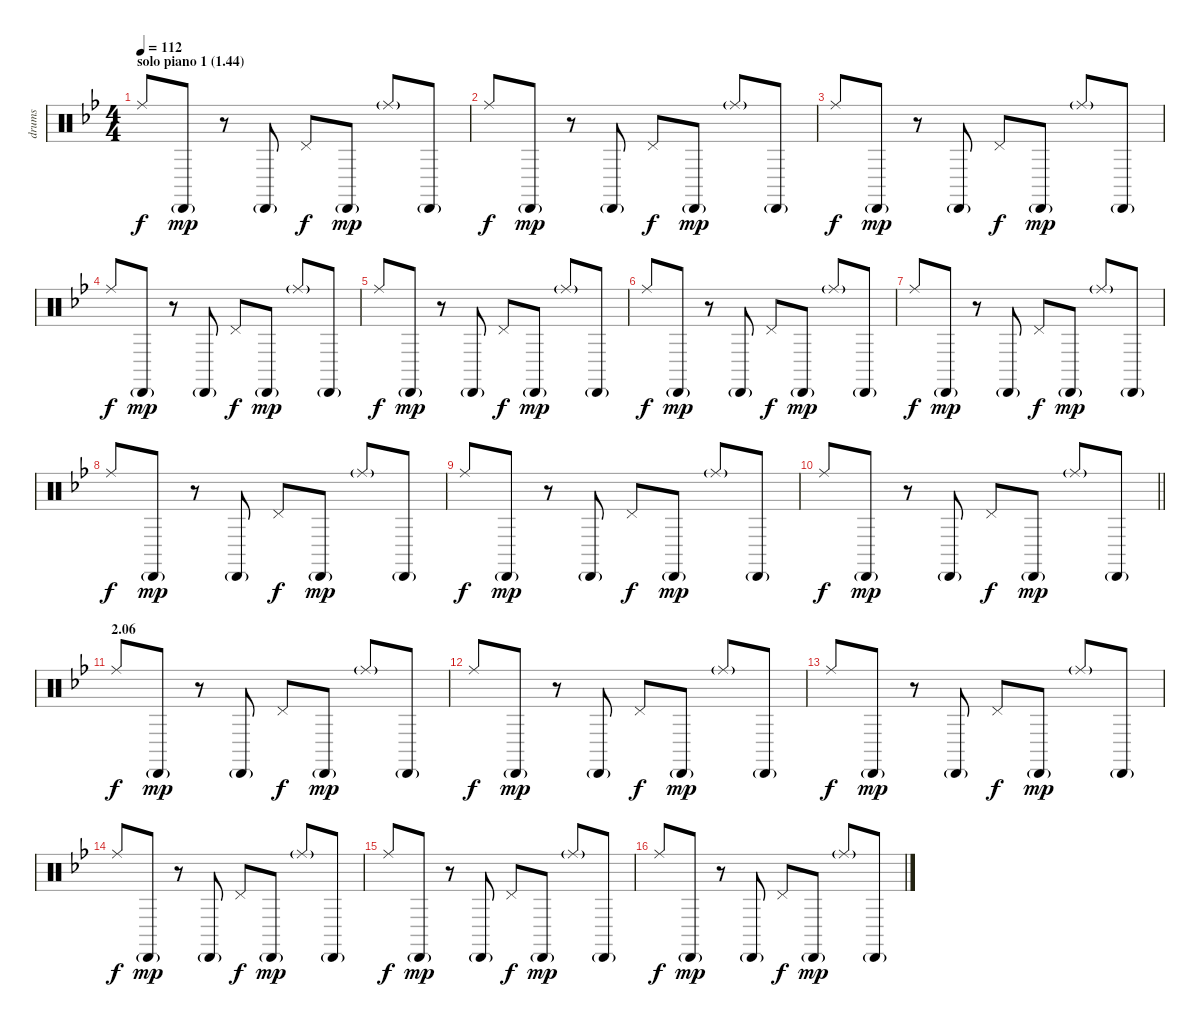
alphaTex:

\track ("drums" "drums") {instrument percussion}
\staff {score}
\articulation defaults
\ts (4 4)
\section ("" "solo piano 1 (1.44)")
\tempo 112
\clef neutral
\ks bb "Ride (middle)".8{dy f} "Cabasa (hit)"{g}.8{dy mp}
r.8 "Cabasa (hit)"{g}.8 "Pedal Hi-Hat (hit)".8{dy f} "Cabasa (hit)"{g}.8{dy mp} "Ride (middle)"{g}.8 "Cabasa (hit)"{g}.8 |
"Ride (middle)".8{dy f} "Cabasa (hit)"{g}.8{dy mp} r.8 "Cabasa (hit)"{g}.8 "Pedal Hi-Hat (hit)".8{dy f} "Cabasa (hit)"{g}.8{dy mp} "Ride (middle)"{g}.8 "Cabasa (hit)"{g}.8 |
"Ride (middle)".8{dy f} "Cabasa (hit)"{g}.8{dy mp} r.8 "Cabasa (hit)"{g}.8 "Pedal Hi-Hat (hit)".8{dy f} "Cabasa (hit)"{g}.8{dy mp} "Ride (middle)"{g}.8 "Cabasa (hit)"{g}.8 |
"Ride (middle)".8{dy f} "Cabasa (hit)"{g}.8{dy mp} r.8 "Cabasa (hit)"{g}.8 "Pedal Hi-Hat (hit)".8{dy f} "Cabasa (hit)"{g}.8{dy mp} "Ride (middle)"{g}.8 "Cabasa (hit)"{g}.8 |
"Ride (middle)".8{dy f} "Cabasa (hit)"{g}.8{dy mp} r.8 "Cabasa (hit)"{g}.8 "Pedal Hi-Hat (hit)".8{dy f} "Cabasa (hit)"{g}.8{dy mp} "Ride (middle)"{g}.8 "Cabasa (hit)"{g}.8 |
"Ride (middle)".8{dy f} "Cabasa (hit)"{g}.8{dy mp} r.8 "Cabasa (hit)"{g}.8 "Pedal Hi-Hat (hit)".8{dy f} "Cabasa (hit)"{g}.8{dy mp} "Ride (middle)"{g}.8 "Cabasa (hit)"{g}.8 |
"Ride (middle)".8{dy f} "Cabasa (hit)"{g}.8{dy mp} r.8 "Cabasa (hit)"{g}.8 "Pedal Hi-Hat (hit)".8{dy f} "Cabasa (hit)"{g}.8{dy mp} "Ride (middle)"{g}.8 "Cabasa (hit)"{g}.8 |
"Ride (middle)".8{dy f} "Cabasa (hit)"{g}.8{dy mp} r.8 "Cabasa (hit)"{g}.8 "Pedal Hi-Hat (hit)".8{dy f} "Cabasa (hit)"{g}.8{dy mp} "Ride (middle)"{g}.8 "Cabasa (hit)"{g}.8 |
"Ride (middle)".8{dy f} "Cabasa (hit)"{g}.8{dy mp} r.8 "Cabasa (hit)"{g}.8 "Pedal Hi-Hat (hit)".8{dy f} "Cabasa (hit)"{g}.8{dy mp} "Ride (middle)"{g}.8 "Cabasa (hit)"{g}.8 |
\barLineRight lightlight "Ride (middle)".8{dy f} "Cabasa (hit)"{g}.8{dy mp}
r.8 "Cabasa (hit)"{g}.8 "Pedal Hi-Hat (hit)".8{dy f} "Cabasa (hit)"{g}.8{dy mp} "Ride (middle)"{g}.8 "Cabasa (hit)"{g}.8 |
\section ("" "2.06")
"Ride (middle)".8{dy f} "Cabasa (hit)"{g}.8{dy mp} r.8 "Cabasa (hit)"{g}.8 "Pedal Hi-Hat (hit)".8{dy f} "Cabasa (hit)"{g}.8{dy mp} "Ride (middle)"{g}.8 "Cabasa (hit)"{g}.8 |
"Ride (middle)".8{dy f} "Cabasa (hit)"{g}.8{dy mp} r.8 "Cabasa (hit)"{g}.8 "Pedal Hi-Hat (hit)".8{dy f} "Cabasa (hit)"{g}.8{dy mp} "Ride (middle)"{g}.8 "Cabasa (hit)"{g}.8 |
"Ride (middle)".8{dy f} "Cabasa (hit)"{g}.8{dy mp} r.8 "Cabasa (hit)"{g}.8 "Pedal Hi-Hat (hit)".8{dy f} "Cabasa (hit)"{g}.8{dy mp} "Ride (middle)"{g}.8 "Cabasa (hit)"{g}.8 |
"Ride (middle)".8{dy f} "Cabasa (hit)"{g}.8{dy mp} r.8 "Cabasa (hit)"{g}.8 "Pedal Hi-Hat (hit)".8{dy f} "Cabasa (hit)"{g}.8{dy mp} "Ride (middle)"{g}.8 "Cabasa (hit)"{g}.8 |
"Ride (middle)".8{dy f} "Cabasa (hit)"{g}.8{dy mp} r.8 "Cabasa (hit)"{g}.8 "Pedal Hi-Hat (hit)".8{dy f} "Cabasa (hit)"{g}.8{dy mp} "Ride (middle)"{g}.8 "Cabasa (hit)"{g}.8 |
"Ride (middle)".8{dy f} "Cabasa (hit)"{g}.8{dy mp} r.8 "Cabasa (hit)"{g}.8 "Pedal Hi-Hat (hit)".8{dy f} "Cabasa (hit)"{g}.8{dy mp} "Ride (middle)"{g}.8 "Cabasa (hit)"{g}.8
